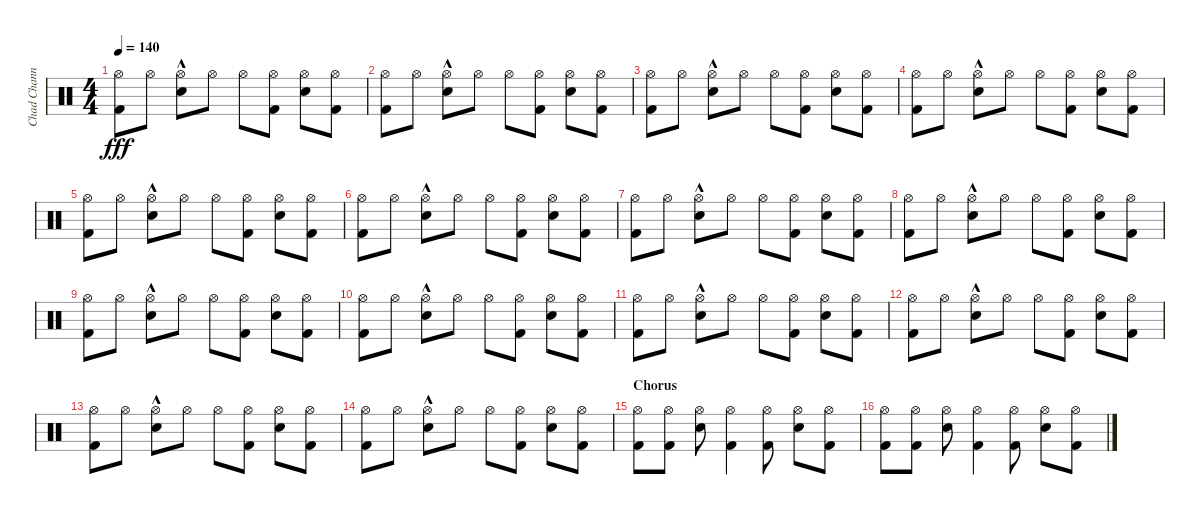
\track ("Chad Channing" "Chad Chann") {instrument percussion}
\staff {score}
\articulation defaults
\ts (4 4)
\tempo 140
\clef neutral
\ks c
("Hi-Hat (open)" "Kick (hit) 2").8{dy fff} "Hi-Hat (open)".8 ("Hi-Hat (open)" "Electric Snare (hit)"{hac}).8 "Hi-Hat (open)".8 "Hi-Hat (open)".8 ("Hi-Hat (open)" "Kick (hit) 2").8 ("Hi-Hat (open)" "Electric Snare (hit)").8 ("Hi-Hat (open)" "Kick (hit) 2").8 |
("Hi-Hat (open)" "Kick (hit) 2").8 "Hi-Hat (open)".8 ("Hi-Hat (open)" "Electric Snare (hit)"{hac}).8 "Hi-Hat (open)".8 "Hi-Hat (open)".8 ("Hi-Hat (open)" "Kick (hit) 2").8 ("Hi-Hat (open)" "Electric Snare (hit)").8 ("Hi-Hat (open)" "Kick (hit) 2").8 |
("Hi-Hat (open)" "Kick (hit) 2").8 "Hi-Hat (open)".8 ("Hi-Hat (open)" "Electric Snare (hit)"{hac}).8 "Hi-Hat (open)".8 "Hi-Hat (open)".8 ("Hi-Hat (open)" "Kick (hit) 2").8 ("Hi-Hat (open)" "Electric Snare (hit)").8 ("Hi-Hat (open)" "Kick (hit) 2").8 |
("Hi-Hat (open)" "Kick (hit) 2").8 "Hi-Hat (open)".8 ("Hi-Hat (open)" "Electric Snare (hit)"{hac}).8 "Hi-Hat (open)".8 "Hi-Hat (open)".8 ("Hi-Hat (open)" "Kick (hit) 2").8 ("Hi-Hat (open)" "Electric Snare (hit)").8 ("Hi-Hat (open)" "Kick (hit) 2").8 |
("Hi-Hat (open)" "Kick (hit) 2").8 "Hi-Hat (open)".8 ("Hi-Hat (open)" "Electric Snare (hit)"{hac}).8 "Hi-Hat (open)".8 "Hi-Hat (open)".8 ("Hi-Hat (open)" "Kick (hit) 2").8 ("Hi-Hat (open)" "Electric Snare (hit)").8 ("Hi-Hat (open)" "Kick (hit) 2").8 |
("Hi-Hat (open)" "Kick (hit) 2").8 "Hi-Hat (open)".8 ("Hi-Hat (open)" "Electric Snare (hit)"{hac}).8 "Hi-Hat (open)".8 "Hi-Hat (open)".8 ("Hi-Hat (open)" "Kick (hit) 2").8 ("Hi-Hat (open)" "Electric Snare (hit)").8 ("Hi-Hat (open)" "Kick (hit) 2").8 |
("Hi-Hat (open)" "Kick (hit) 2").8 "Hi-Hat (open)".8 ("Hi-Hat (open)" "Electric Snare (hit)"{hac}).8 "Hi-Hat (open)".8 "Hi-Hat (open)".8 ("Hi-Hat (open)" "Kick (hit) 2").8 ("Hi-Hat (open)" "Electric Snare (hit)").8 ("Hi-Hat (open)" "Kick (hit) 2").8 |
("Hi-Hat (open)" "Kick (hit) 2").8 "Hi-Hat (open)".8 ("Hi-Hat (open)" "Electric Snare (hit)"{hac}).8 "Hi-Hat (open)".8 "Hi-Hat (open)".8 ("Hi-Hat (open)" "Kick (hit) 2").8 ("Hi-Hat (open)" "Electric Snare (hit)").8 ("Hi-Hat (open)" "Kick (hit) 2").8 |
("Hi-Hat (open)" "Kick (hit) 2").8 "Hi-Hat (open)".8 ("Hi-Hat (open)" "Electric Snare (hit)"{hac}).8 "Hi-Hat (open)".8 "Hi-Hat (open)".8 ("Hi-Hat (open)" "Kick (hit) 2").8 ("Hi-Hat (open)" "Electric Snare (hit)").8 ("Hi-Hat (open)" "Kick (hit) 2").8 |
("Hi-Hat (open)" "Kick (hit) 2").8 "Hi-Hat (open)".8 ("Hi-Hat (open)" "Electric Snare (hit)"{hac}).8 "Hi-Hat (open)".8 "Hi-Hat (open)".8 ("Hi-Hat (open)" "Kick (hit) 2").8 ("Hi-Hat (open)" "Electric Snare (hit)").8 ("Hi-Hat (open)" "Kick (hit) 2").8 |
("Hi-Hat (open)" "Kick (hit) 2").8 "Hi-Hat (open)".8 ("Hi-Hat (open)" "Electric Snare (hit)"{hac}).8 "Hi-Hat (open)".8 "Hi-Hat (open)".8 ("Hi-Hat (open)" "Kick (hit) 2").8 ("Hi-Hat (open)" "Electric Snare (hit)").8 ("Hi-Hat (open)" "Kick (hit) 2").8 |
("Hi-Hat (open)" "Kick (hit) 2").8 "Hi-Hat (open)".8 ("Hi-Hat (open)" "Electric Snare (hit)"{hac}).8 "Hi-Hat (open)".8 "Hi-Hat (open)".8 ("Hi-Hat (open)" "Kick (hit) 2").8 ("Hi-Hat (open)" "Electric Snare (hit)").8 ("Hi-Hat (open)" "Kick (hit) 2").8 |
("Hi-Hat (open)" "Kick (hit) 2").8 "Hi-Hat (open)".8 ("Hi-Hat (open)" "Electric Snare (hit)"{hac}).8 "Hi-Hat (open)".8 "Hi-Hat (open)".8 ("Hi-Hat (open)" "Kick (hit) 2").8 ("Hi-Hat (open)" "Electric Snare (hit)").8 ("Hi-Hat (open)" "Kick (hit) 2").8 |
("Hi-Hat (open)" "Kick (hit) 2").8 "Hi-Hat (open)".8 ("Hi-Hat (open)" "Electric Snare (hit)"{hac}).8 "Hi-Hat (open)".8 "Hi-Hat (open)".8 ("Hi-Hat (open)" "Kick (hit) 2").8 ("Hi-Hat (open)" "Electric Snare (hit)").8 ("Hi-Hat (open)" "Kick (hit) 2").8 |
\section ("" "Chorus")
("Hi-Hat (open)" "Kick (hit) 2").8 ("Hi-Hat (open)" "Kick (hit) 2").8 ("Hi-Hat (open)" "Electric Snare (hit)").8 ("Hi-Hat (open)" "Kick (hit) 2").4 ("Hi-Hat (open)" "Kick (hit) 2").8 ("Hi-Hat (open)" "Electric Snare (hit)").8 ("Hi-Hat (open)" "Kick (hit) 2").8 |
("Hi-Hat (open)" "Kick (hit) 2").8 ("Hi-Hat (open)" "Kick (hit) 2").8 ("Hi-Hat (open)" "Electric Snare (hit)").8 ("Hi-Hat (open)" "Kick (hit) 2").4 ("Hi-Hat (open)" "Kick (hit) 2").8 ("Hi-Hat (open)" "Electric Snare (hit)").8 ("Hi-Hat (open)" "Kick (hit) 2").8
